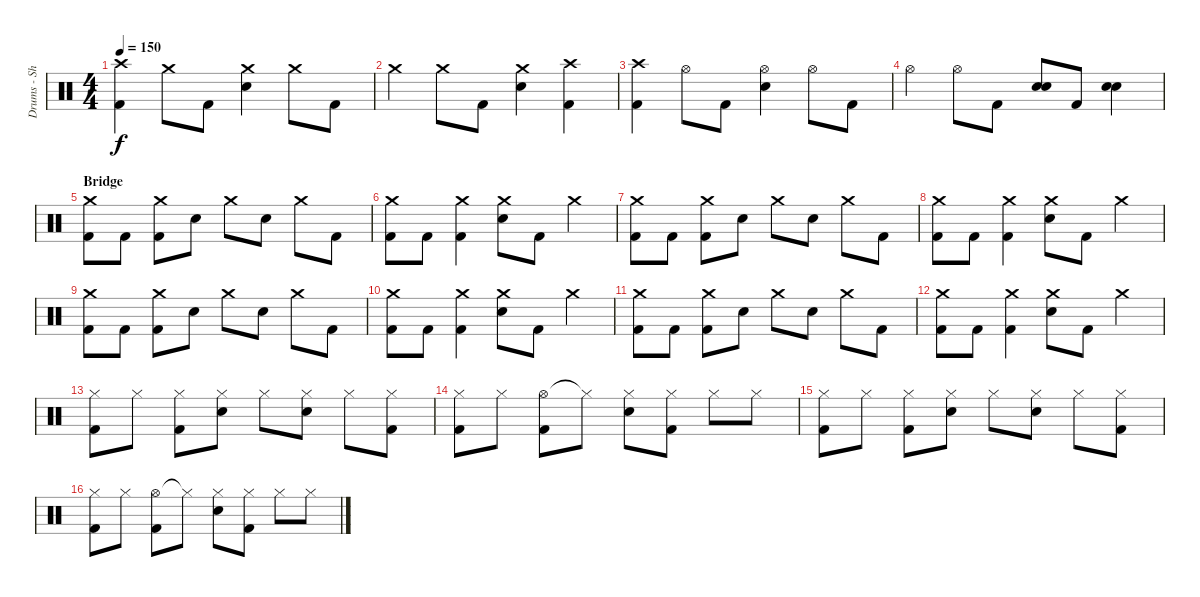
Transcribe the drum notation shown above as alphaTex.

\track ("Drums - Shelton" "Drums - Sh") {instrument percussion}
\staff {score}
\articulation defaults
\ts (4 4)
\tempo 150
\clef neutral
\ks c
("Crash high (hit)" "Kick (hit) 2").4{dy f} "Crash medium (hit)".8 "Kick (hit) 2".8 ("Crash medium (hit)" "Electric Snare (hit)").4 "Crash medium (hit)".8 "Kick (hit) 2".8 |
"Crash medium (hit)".4 "Crash medium (hit)".8 "Kick (hit) 2".8 ("Crash medium (hit)" "Electric Snare (hit)").4 ("Crash high (hit)" "Kick (hit) 2").4 |
("Crash high (hit)" "Kick (hit) 2").4 "Hi-Hat (open)".8 "Kick (hit) 2".8 ("Hi-Hat (open)" "Electric Snare (hit)").4 "Hi-Hat (open)".8 "Kick (hit) 2".8 |
"Hi-Hat (open)".4 "Hi-Hat (open)".8 "Kick (hit) 2".8 ("Electric Snare (hit)" "Electric Snare (hit)").8 "Kick (hit) 2".8 ("Electric Snare (hit)" "Electric Snare (hit)").4 |
\section ("" "Bridge")
("Crash medium (hit)" "Kick (hit) 2").8 "Kick (hit) 2".8 ("Crash medium (hit)" "Kick (hit) 2").8 "Electric Snare (hit)".8 "Crash medium (hit)".8 "Electric Snare (hit)".8 "Crash medium (hit)".8 "Kick (hit) 2".8 |
("Crash medium (hit)" "Kick (hit) 2").8 "Kick (hit) 2".8 ("Crash medium (hit)" "Kick (hit) 2").4 ("Crash medium (hit)" "Electric Snare (hit)").8 "Kick (hit) 2".8 "Crash medium (hit)".4 |
("Crash medium (hit)" "Kick (hit) 2").8 "Kick (hit) 2".8 ("Crash medium (hit)" "Kick (hit) 2").8 "Electric Snare (hit)".8 "Crash medium (hit)".8 "Electric Snare (hit)".8 "Crash medium (hit)".8 "Kick (hit) 2".8 |
("Crash medium (hit)" "Kick (hit) 2").8 "Kick (hit) 2".8 ("Crash medium (hit)" "Kick (hit) 2").4 ("Crash medium (hit)" "Electric Snare (hit)").8 "Kick (hit) 2".8 "Crash medium (hit)".4 |
("Crash medium (hit)" "Kick (hit) 2").8 "Kick (hit) 2".8 ("Crash medium (hit)" "Kick (hit) 2").8 "Electric Snare (hit)".8 "Crash medium (hit)".8 "Electric Snare (hit)".8 "Crash medium (hit)".8 "Kick (hit) 2".8 |
("Crash medium (hit)" "Kick (hit) 2").8 "Kick (hit) 2".8 ("Crash medium (hit)" "Kick (hit) 2").4 ("Crash medium (hit)" "Electric Snare (hit)").8 "Kick (hit) 2".8 "Crash medium (hit)".4 |
("Crash medium (hit)" "Kick (hit) 2").8 "Kick (hit) 2".8 ("Crash medium (hit)" "Kick (hit) 2").8 "Electric Snare (hit)".8 "Crash medium (hit)".8 "Electric Snare (hit)".8 "Crash medium (hit)".8 "Kick (hit) 2".8 |
("Crash medium (hit)" "Kick (hit) 2").8 "Kick (hit) 2".8 ("Crash medium (hit)" "Kick (hit) 2").4 ("Crash medium (hit)" "Electric Snare (hit)").8 "Kick (hit) 2".8 "Crash medium (hit)".4 |
("Hi-Hat (closed)" "Kick (hit) 2").8 "Hi-Hat (closed)".8 ("Hi-Hat (closed)" "Kick (hit) 2").8 ("Hi-Hat (closed)" "Electric Snare (hit)").8 "Hi-Hat (closed)".8 ("Hi-Hat (closed)" "Electric Snare (hit)").8 "Hi-Hat (closed)".8 ("Hi-Hat (closed)" "Kick (hit) 2").8 |
("Hi-Hat (closed)" "Kick (hit) 2").8 "Hi-Hat (closed)".8 ("Hi-Hat (open)" "Kick (hit) 2").8 "Hi-Hat (closed)"{t}.8 ("Hi-Hat (closed)" "Electric Snare (hit)").8 ("Hi-Hat (closed)" "Kick (hit) 2").8 "Hi-Hat (closed)".8 "Hi-Hat (closed)".8 |
("Hi-Hat (closed)" "Kick (hit) 2").8 "Hi-Hat (closed)".8 ("Hi-Hat (closed)" "Kick (hit) 2").8 ("Hi-Hat (closed)" "Electric Snare (hit)").8 "Hi-Hat (closed)".8 ("Hi-Hat (closed)" "Electric Snare (hit)").8 "Hi-Hat (closed)".8 ("Hi-Hat (closed)" "Kick (hit) 2").8 |
("Hi-Hat (closed)" "Kick (hit) 2").8 "Hi-Hat (closed)".8 ("Hi-Hat (open)" "Kick (hit) 2").8 "Hi-Hat (closed)"{t}.8 ("Hi-Hat (closed)" "Electric Snare (hit)").8 ("Hi-Hat (closed)" "Kick (hit) 2").8 "Hi-Hat (closed)".8 "Hi-Hat (closed)".8
